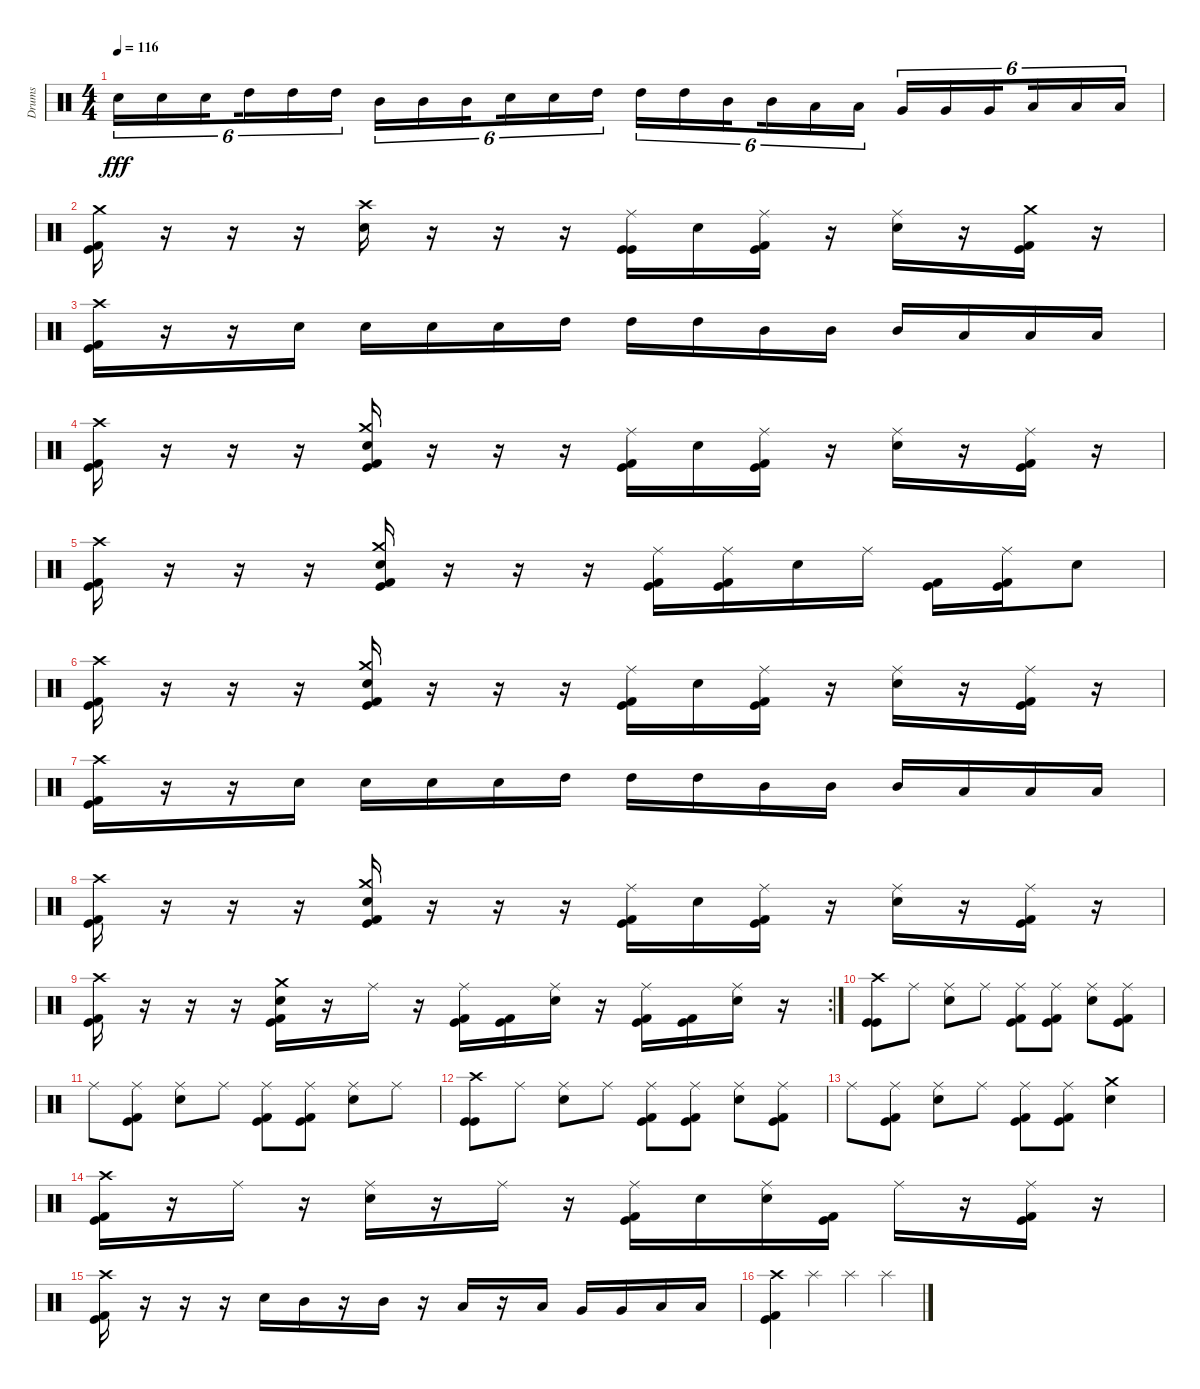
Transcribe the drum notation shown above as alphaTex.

\track ("Drums" "Drums") {instrument percussion}
\staff {score}
\articulation defaults
\ts (4 4)
\tempo 116
\clef neutral
\ks c "Snare (hit) 2".16{tu (6 4) dy fff} "Snare (hit) 2".16{tu (6 4)} "Snare (hit) 2".16{tu (6 4) beam splitsecondary} "High Tom (hit)".16{tu (6 4)} "High Tom (hit)".16{tu (6 4)} "High Tom (hit)".16{tu (6 4)} "Mid Tom (hit)".16{tu (6 4)} "Mid Tom (hit)".16{tu (6 4)} "Mid Tom (hit)".16{tu (6 4) beam splitsecondary} "Snare (hit) 2".16{tu (6 4)} "Snare (hit) 2".16{tu (6 4)} "High Tom (hit)".16{tu (6 4)} "High Tom (hit)".16{tu (6 4)} "High Tom (hit)".16{tu (6 4)} "Mid Tom (hit)".16{tu (6 4) beam splitsecondary} "Mid Tom (hit)".16{tu (6 4)} "Low Tom (hit)".16{tu (6 4)} "Low Tom (hit)".16{tu (6 4)} "Very Low Tom (hit)".16{tu (6 4)} "Very Low Tom (hit)".16{tu (6 4)} "Very Low Tom (hit)".16{tu (6 4) beam splitsecondary} "Low Floor Tom (hit)".16{tu (6 4)} "Low Floor Tom (hit)".16{tu (6 4)} "Low Floor Tom (hit)".16{tu (6 4)}
|
("Crash medium (hit)" "Kick (hit)" "Kick (hit) 2").16 r.16 r.16 r.16 ("Crash high (hit)" "Snare (hit) 2").16 r.16 r.16 r.16 ("Ride (middle)" "Kick (hit)" "Kick (hit)").16 "Snare (hit) 2".16 ("Ride (middle)" "Kick (hit)" "Kick (hit) 2").16 r.16 ("Ride (middle)" "Snare (hit) 2").16 r.16 ("Crash medium (hit)" "Kick (hit)" "Kick (hit) 2").16 r.16 |
("Crash high (hit)" "Kick (hit)" "Kick (hit) 2").16 r.16 r.16 "Snare (hit) 2".16 "Snare (hit) 2".16 "Snare (hit) 2".16 "Snare (hit) 2".16 "High Tom (hit)".16 "High Tom (hit)".16 "High Tom (hit)".16 "Mid Tom (hit)".16 "Mid Tom (hit)".16 "Mid Tom (hit)".16 "Low Tom (hit)".16 "Low Tom (hit)".16 "Low Tom (hit)".16 |
("Crash high (hit)" "Kick (hit)" "Kick (hit) 2").16 r.16 r.16 r.16 ("Crash medium (hit)" "Snare (hit) 2" "Kick (hit)" "Kick (hit) 2").16 r.16 r.16 r.16 ("Ride (middle)" "Kick (hit)" "Kick (hit) 2").16 "Snare (hit) 2".16 ("Ride (middle)" "Kick (hit)" "Kick (hit) 2").16 r.16 ("Ride (middle)" "Snare (hit) 2").16 r.16 ("Ride (middle)" "Kick (hit)" "Kick (hit) 2").16 r.16 |
("Crash high (hit)" "Kick (hit)" "Kick (hit) 2").16 r.16 r.16 r.16 ("Crash medium (hit)" "Snare (hit) 2" "Kick (hit)" "Kick (hit) 2").16 r.16 r.16 r.16 ("Ride (middle)" "Kick (hit)" "Kick (hit) 2").16 ("Ride (middle)" "Kick (hit)" "Kick (hit) 2").16 "Snare (hit) 2".16 "Ride (middle)".16 ("Kick (hit)" "Kick (hit) 2").16 ("Ride (middle)" "Kick (hit)" "Kick (hit) 2").16 "Snare (hit) 2".8 |
("Crash high (hit)" "Kick (hit)" "Kick (hit) 2").16 r.16 r.16 r.16 ("Crash medium (hit)" "Snare (hit) 2" "Kick (hit)" "Kick (hit) 2").16 r.16 r.16 r.16 ("Ride (middle)" "Kick (hit)" "Kick (hit) 2").16 "Snare (hit) 2".16 ("Ride (middle)" "Kick (hit)" "Kick (hit) 2").16 r.16 ("Ride (middle)" "Snare (hit) 2").16 r.16 ("Ride (middle)" "Kick (hit)" "Kick (hit) 2").16 r.16 |
("Crash high (hit)" "Kick (hit)" "Kick (hit) 2").16 r.16 r.16 "Snare (hit) 2".16 "Snare (hit) 2".16 "Snare (hit) 2".16 "Snare (hit) 2".16 "High Tom (hit)".16 "High Tom (hit)".16 "High Tom (hit)".16 "Mid Tom (hit)".16 "Mid Tom (hit)".16 "Mid Tom (hit)".16 "Low Tom (hit)".16 "Low Tom (hit)".16 "Low Tom (hit)".16 |
("Crash high (hit)" "Kick (hit)" "Kick (hit) 2").16 r.16 r.16 r.16 ("Crash medium (hit)" "Snare (hit) 2" "Kick (hit)" "Kick (hit) 2").16 r.16 r.16 r.16 ("Ride (middle)" "Kick (hit)" "Kick (hit) 2").16 "Snare (hit) 2".16 ("Ride (middle)" "Kick (hit)" "Kick (hit) 2").16 r.16 ("Ride (middle)" "Snare (hit) 2").16 r.16 ("Ride (middle)" "Kick (hit)" "Kick (hit) 2").16 r.16 |
\rc 2
("Crash high (hit)" "Kick (hit)" "Kick (hit) 2").16 r.16 r.16 r.16 ("Crash medium (hit)" "Snare (hit) 2" "Kick (hit)" "Kick (hit) 2").16 r.16 "Ride (middle)".16 r.16 ("Ride (middle)" "Kick (hit)" "Kick (hit) 2").16 ("Kick (hit)" "Kick (hit) 2").16 ("Ride (middle)" "Snare (hit) 2").16 r.16 ("Ride (middle)" "Kick (hit)" "Kick (hit) 2").16 ("Kick (hit)" "Kick (hit) 2").16 ("Ride (middle)" "Snare (hit) 2").16 r.16 |
("Crash high (hit)" "Kick (hit)" "Kick (hit)").8 "Ride (middle)".8 ("Ride (middle)" "Snare (hit) 2").8 "Ride (middle)".8 ("Ride (middle)" "Kick (hit)" "Kick (hit) 2").8 ("Ride (middle)" "Kick (hit)" "Kick (hit) 2").8 ("Ride (middle)" "Snare (hit) 2").8 ("Ride (middle)" "Kick (hit)" "Kick (hit) 2").8 |
"Ride (middle)".8 ("Ride (middle)" "Kick (hit)" "Kick (hit) 2").8 ("Ride (middle)" "Snare (hit) 2").8 "Ride (middle)".8 ("Ride (middle)" "Kick (hit)" "Kick (hit) 2").8 ("Ride (middle)" "Kick (hit)" "Kick (hit) 2").8 ("Ride (middle)" "Snare (hit) 2").8 "Ride (middle)".8 |
("Crash high (hit)" "Kick (hit)" "Kick (hit)").8 "Ride (middle)".8 ("Ride (middle)" "Snare (hit) 2").8 "Ride (middle)".8 ("Ride (middle)" "Kick (hit)" "Kick (hit) 2").8 ("Ride (middle)" "Kick (hit)" "Kick (hit) 2").8 ("Ride (middle)" "Snare (hit) 2").8 ("Ride (middle)" "Kick (hit)" "Kick (hit) 2").8 |
"Ride (middle)".8 ("Ride (middle)" "Kick (hit)" "Kick (hit) 2").8 ("Ride (middle)" "Snare (hit) 2").8 "Ride (middle)".8 ("Ride (middle)" "Kick (hit)" "Kick (hit) 2").8 ("Ride (middle)" "Kick (hit)" "Kick (hit) 2").8 ("Crash medium (hit)" "Snare (hit) 2").4 |
("Crash high (hit)" "Kick (hit)" "Kick (hit) 2").16 r.16 "Ride (middle)".16 r.16 ("Ride (middle)" "Snare (hit) 2").16 r.16 "Ride (middle)".16 r.16 ("Ride (middle)" "Kick (hit)" "Kick (hit) 2").16 "Snare (hit) 2".16 ("Ride (middle)" "Snare (hit) 2").16 ("Kick (hit)" "Kick (hit) 2").16 "Ride (middle)".16 r.16 ("Ride (middle)" "Kick (hit)" "Kick (hit) 2").16 r.16 |
("Crash high (hit)" "Kick (hit)" "Kick (hit) 2").16 r.16 r.16 r.16 "Snare (hit) 2".16 "Mid Tom (hit)".16 r.16 "Mid Tom (hit)".16 r.16 "Low Tom (hit)".16 r.16 "Low Tom (hit)".16 "Very Low Tom (hit)".16 "Very Low Tom (hit)".16 "Low Floor Tom (hit)".16 "Low Floor Tom (hit)".16 |
("Crash high (hit)" "Kick (hit)" "Kick (hit) 2").4 "Splash (hit)".4 "Splash (hit)".4 "Splash (hit)".4
